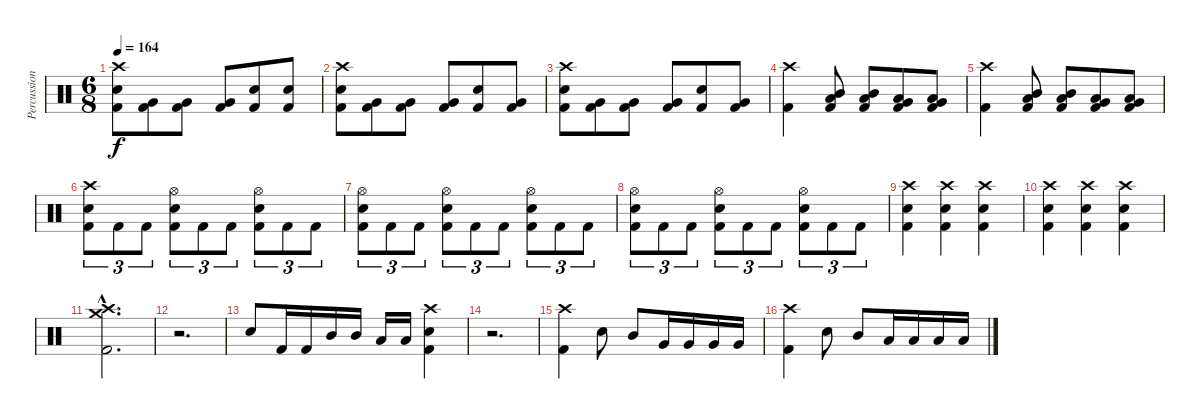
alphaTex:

\track ("Percussion" "Percussion") {instrument percussion}
\staff {score}
\articulation defaults
\ts (6 8)
\tempo 164
\clef neutral
\ks c
("Crash high (hit)" "Snare (hit) 2" "Kick (hit) 2").8{dy f} ("Very Low Tom (hit)" "Kick (hit) 2").8 ("Very Low Tom (hit)" "Kick (hit) 2").8 ("Very Low Tom (hit)" "Kick (hit) 2").8 ("Snare (hit) 2" "Kick (hit) 2").8 ("Snare (hit) 2" "Kick (hit) 2").8 |
("Crash high (hit)" "Snare (hit) 2" "Kick (hit) 2").8 ("Very Low Tom (hit)" "Kick (hit) 2").8 ("Very Low Tom (hit)" "Kick (hit) 2").8 ("Very Low Tom (hit)" "Kick (hit) 2").8 ("Snare (hit) 2" "Kick (hit) 2").8 ("Very Low Tom (hit)" "Kick (hit) 2").8 |
("Crash high (hit)" "Snare (hit) 2" "Kick (hit) 2").8 ("Very Low Tom (hit)" "Kick (hit) 2").8 ("Very Low Tom (hit)" "Kick (hit) 2").8 ("Very Low Tom (hit)" "Kick (hit) 2").8 ("Snare (hit) 2" "Kick (hit) 2").8 ("Very Low Tom (hit)" "Kick (hit) 2").8 |
("Crash high (hit)" "Kick (hit) 2").4 ("Mid Tom (hit)" "Low Tom (hit)" "Kick (hit) 2").8 ("Mid Tom (hit)" "Low Tom (hit)" "Kick (hit) 2").8 ("Low Tom (hit)" "Very Low Tom (hit)" "Kick (hit) 2").8 ("Low Tom (hit)" "Very Low Tom (hit)" "Kick (hit) 2").8 |
("Crash high (hit)" "Kick (hit) 2").4 ("Mid Tom (hit)" "Low Tom (hit)" "Kick (hit) 2").8 ("Mid Tom (hit)" "Low Tom (hit)" "Kick (hit) 2").8 ("Low Tom (hit)" "Very Low Tom (hit)" "Kick (hit) 2").8 ("Low Tom (hit)" "Very Low Tom (hit)" "Kick (hit) 2").8 |
("Crash high (hit)" "Snare (hit) 2" "Kick (hit) 2").8{tu (3 2)} "Kick (hit) 2".8{tu (3 2)} "Kick (hit) 2".8{tu (3 2)} ("Hi-Hat (open)" "Snare (hit) 2" "Kick (hit) 2").8{tu (3 2)} "Kick (hit) 2".8{tu (3 2)} "Kick (hit) 2".8{tu (3 2)} ("Hi-Hat (open)" "Snare (hit) 2" "Kick (hit) 2").8{tu (3 2)} "Kick (hit) 2".8{tu (3 2)} "Kick (hit) 2".8{tu (3 2)} |
("Hi-Hat (open)" "Snare (hit) 2" "Kick (hit) 2").8{tu (3 2)} "Kick (hit) 2".8{tu (3 2)} "Kick (hit) 2".8{tu (3 2)} ("Hi-Hat (open)" "Snare (hit) 2" "Kick (hit) 2").8{tu (3 2)} "Kick (hit) 2".8{tu (3 2)} "Kick (hit) 2".8{tu (3 2)} ("Hi-Hat (open)" "Snare (hit) 2" "Kick (hit) 2").8{tu (3 2)} "Kick (hit) 2".8{tu (3 2)} "Kick (hit) 2".8{tu (3 2)} |
("Hi-Hat (open)" "Snare (hit) 2" "Kick (hit) 2").8{tu (3 2)} "Kick (hit) 2".8{tu (3 2)} "Kick (hit) 2".8{tu (3 2)} ("Hi-Hat (open)" "Snare (hit) 2" "Kick (hit) 2").8{tu (3 2)} "Kick (hit) 2".8{tu (3 2)} "Kick (hit) 2".8{tu (3 2)} ("Hi-Hat (open)" "Snare (hit) 2" "Kick (hit) 2").8{tu (3 2)} "Kick (hit) 2".8{tu (3 2)} "Kick (hit) 2".8{tu (3 2)} |
("Crash high (hit)" "Snare (hit) 2" "Kick (hit) 2").4 ("Crash high (hit)" "Snare (hit) 2" "Kick (hit) 2").4 ("Crash high (hit)" "Snare (hit) 2" "Kick (hit) 2").4 |
("Crash high (hit)" "Snare (hit) 2" "Kick (hit) 2").4 ("Crash high (hit)" "Snare (hit) 2" "Kick (hit) 2").4 ("Crash high (hit)" "Snare (hit) 2" "Kick (hit) 2").4 |
("Crash high (hit)"{hac} "Crash medium (hit)"{hac} "Kick (hit) 2"{hac}).2{d} |
r.2{d} |
"Snare (hit) 2".8 "Kick (hit) 2".16 "Kick (hit) 2".16 "Mid Tom (hit)".16 "Mid Tom (hit)".16 "Low Tom (hit)".16 "Low Tom (hit)".16 ("Crash high (hit)" "Snare (hit) 2" "Kick (hit) 2").4 |
r.2{d} |
("Crash high (hit)" "Kick (hit) 2").4 "Snare (hit) 2".8 "Mid Tom (hit)".8 "Very Low Tom (hit)".16 "Very Low Tom (hit)".16 "Very Low Tom (hit)".16 "Very Low Tom (hit)".16 |
("Crash high (hit)" "Kick (hit) 2").4 "Snare (hit) 2".8 "Mid Tom (hit)".8 "Low Tom (hit)".16 "Low Tom (hit)".16 "Low Tom (hit)".16 "Low Tom (hit)".16
